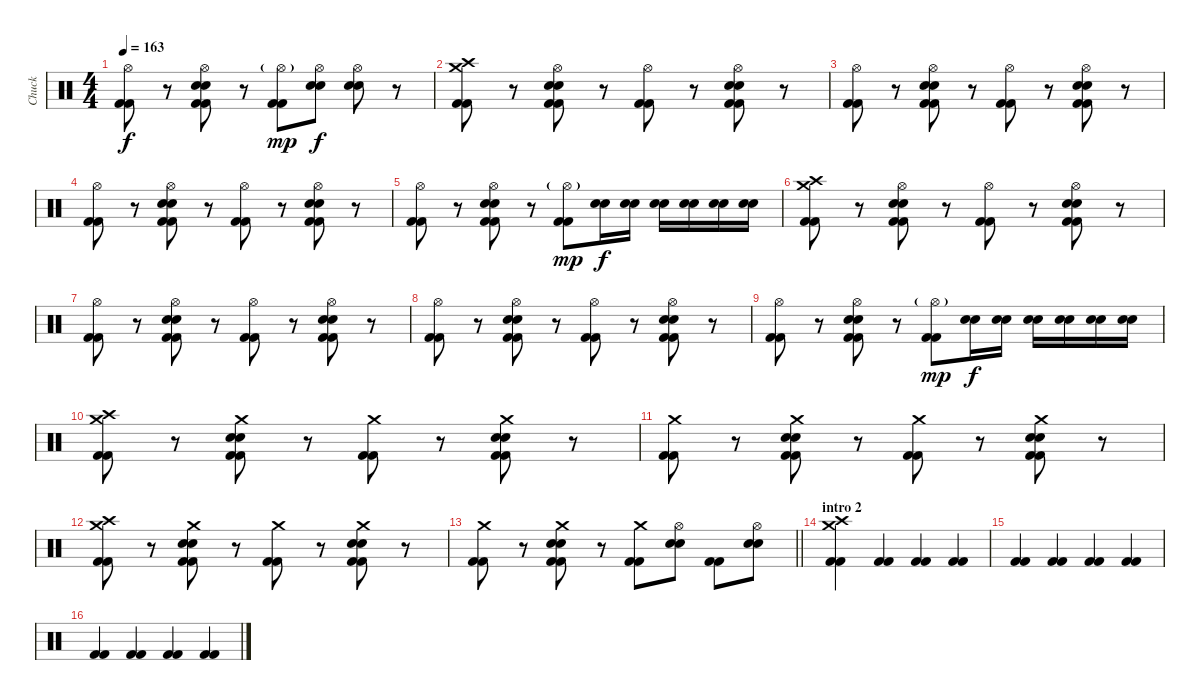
\track ("Chuck" "Chuck") {instrument percussion}
\staff {score}
\articulation defaults
\ts (4 4)
\tempo 163
\clef neutral
\ks c
("Hi-Hat (open)" "Kick (hit) 2" "Kick (hit) 2").8{dy f} r.8 ("Hi-Hat (open)" "Snare (hit) 2" "Snare (hit) 2" "Kick (hit) 2" "Kick (hit) 2").8 r.8 ("Hi-Hat (open)"{g} "Kick (hit) 2" "Kick (hit) 2").8{dy mp} ("Hi-Hat (open)" "Snare (hit) 2" "Snare (hit) 2").8{dy f} ("Hi-Hat (open)" "Snare (hit) 2" "Snare (hit) 2").8 r.8 |
("Crash medium (hit)" "Crash high (hit)" "Kick (hit) 2" "Kick (hit) 2").8 r.8 ("Hi-Hat (open)" "Snare (hit) 2" "Snare (hit) 2" "Kick (hit) 2" "Kick (hit) 2").8 r.8 ("Hi-Hat (open)" "Kick (hit) 2" "Kick (hit) 2").8 r.8 ("Hi-Hat (open)" "Snare (hit) 2" "Snare (hit) 2" "Kick (hit) 2" "Kick (hit) 2").8 r.8 |
("Hi-Hat (open)" "Kick (hit) 2" "Kick (hit) 2").8 r.8 ("Hi-Hat (open)" "Snare (hit) 2" "Snare (hit) 2" "Kick (hit) 2" "Kick (hit) 2").8 r.8 ("Hi-Hat (open)" "Kick (hit) 2" "Kick (hit) 2").8 r.8 ("Hi-Hat (open)" "Snare (hit) 2" "Snare (hit) 2" "Kick (hit) 2" "Kick (hit) 2").8 r.8 |
("Hi-Hat (open)" "Kick (hit) 2" "Kick (hit) 2").8 r.8 ("Hi-Hat (open)" "Snare (hit) 2" "Snare (hit) 2" "Kick (hit) 2" "Kick (hit) 2").8 r.8 ("Hi-Hat (open)" "Kick (hit) 2" "Kick (hit) 2").8 r.8 ("Hi-Hat (open)" "Snare (hit) 2" "Snare (hit) 2" "Kick (hit) 2" "Kick (hit) 2").8 r.8 |
("Hi-Hat (open)" "Kick (hit) 2" "Kick (hit) 2").8 r.8 ("Hi-Hat (open)" "Snare (hit) 2" "Snare (hit) 2" "Kick (hit) 2" "Kick (hit) 2").8 r.8 ("Hi-Hat (open)"{g} "Kick (hit) 2" "Kick (hit) 2").8{dy mp} ("Snare (hit) 2" "Snare (hit) 2").16{dy f} ("Snare (hit) 2" "Snare (hit) 2").16 ("Snare (hit) 2" "Snare (hit) 2").16 ("Snare (hit) 2" "Snare (hit) 2").16 ("Snare (hit) 2" "Snare (hit) 2").16 ("Snare (hit) 2" "Snare (hit) 2").16 |
("Crash medium (hit)" "Crash high (hit)" "Kick (hit) 2" "Kick (hit) 2").8 r.8 ("Hi-Hat (open)" "Snare (hit) 2" "Snare (hit) 2" "Kick (hit) 2" "Kick (hit) 2").8 r.8 ("Hi-Hat (open)" "Kick (hit) 2" "Kick (hit) 2").8 r.8 ("Hi-Hat (open)" "Snare (hit) 2" "Snare (hit) 2" "Kick (hit) 2" "Kick (hit) 2").8 r.8 |
("Hi-Hat (open)" "Kick (hit) 2" "Kick (hit) 2").8 r.8 ("Hi-Hat (open)" "Snare (hit) 2" "Snare (hit) 2" "Kick (hit) 2" "Kick (hit) 2").8 r.8 ("Hi-Hat (open)" "Kick (hit) 2" "Kick (hit) 2").8 r.8 ("Hi-Hat (open)" "Snare (hit) 2" "Snare (hit) 2" "Kick (hit) 2" "Kick (hit) 2").8 r.8 |
("Hi-Hat (open)" "Kick (hit) 2" "Kick (hit) 2").8 r.8 ("Hi-Hat (open)" "Snare (hit) 2" "Snare (hit) 2" "Kick (hit) 2" "Kick (hit) 2").8 r.8 ("Hi-Hat (open)" "Kick (hit) 2" "Kick (hit) 2").8 r.8 ("Hi-Hat (open)" "Snare (hit) 2" "Snare (hit) 2" "Kick (hit) 2" "Kick (hit) 2").8 r.8 |
("Hi-Hat (open)" "Kick (hit) 2" "Kick (hit) 2").8 r.8 ("Hi-Hat (open)" "Snare (hit) 2" "Snare (hit) 2" "Kick (hit) 2" "Kick (hit) 2").8 r.8 ("Hi-Hat (open)"{g} "Kick (hit) 2" "Kick (hit) 2").8{dy mp} ("Snare (hit) 2" "Snare (hit) 2").16{dy f} ("Snare (hit) 2" "Snare (hit) 2").16 ("Snare (hit) 2" "Snare (hit) 2").16 ("Snare (hit) 2" "Snare (hit) 2").16 ("Snare (hit) 2" "Snare (hit) 2").16 ("Snare (hit) 2" "Snare (hit) 2").16 |
("Crash medium (hit)" "Crash high (hit)" "Kick (hit) 2" "Kick (hit) 2").8 r.8 ("Crash medium (hit)" "Snare (hit) 2" "Snare (hit) 2" "Kick (hit) 2" "Kick (hit) 2").8 r.8 ("Crash medium (hit)" "Kick (hit) 2" "Kick (hit) 2").8 r.8 ("Crash medium (hit)" "Snare (hit) 2" "Snare (hit) 2" "Kick (hit) 2" "Kick (hit) 2").8 r.8 |
("Crash medium (hit)" "Kick (hit) 2" "Kick (hit) 2").8 r.8 ("Crash medium (hit)" "Snare (hit) 2" "Snare (hit) 2" "Kick (hit) 2" "Kick (hit) 2").8 r.8 ("Crash medium (hit)" "Kick (hit) 2" "Kick (hit) 2").8 r.8 ("Crash medium (hit)" "Snare (hit) 2" "Snare (hit) 2" "Kick (hit) 2" "Kick (hit) 2").8 r.8 |
("Crash medium (hit)" "Crash high (hit)" "Kick (hit) 2" "Kick (hit) 2").8 r.8 ("Crash medium (hit)" "Snare (hit) 2" "Snare (hit) 2" "Kick (hit) 2" "Kick (hit) 2").8 r.8 ("Crash medium (hit)" "Kick (hit) 2" "Kick (hit) 2").8 r.8 ("Crash medium (hit)" "Snare (hit) 2" "Snare (hit) 2" "Kick (hit) 2" "Kick (hit) 2").8 r.8 |
\barLineRight lightlight
("Crash medium (hit)" "Kick (hit) 2" "Kick (hit) 2").8 r.8 ("Crash medium (hit)" "Snare (hit) 2" "Snare (hit) 2" "Kick (hit) 2" "Kick (hit) 2").8 r.8 ("Crash medium (hit)" "Kick (hit) 2" "Kick (hit) 2").8 ("Hi-Hat (open)" "Snare (hit) 2" "Snare (hit) 2").8 ("Kick (hit) 2" "Kick (hit) 2").8 ("Hi-Hat (open)" "Snare (hit) 2" "Snare (hit) 2").8 |
\section ("" "intro 2")
("Kick (hit) 2" "Kick (hit) 2" "Crash high (hit)" "Crash medium (hit)").4 ("Kick (hit) 2" "Kick (hit) 2").4 ("Kick (hit) 2" "Kick (hit) 2").4 ("Kick (hit) 2" "Kick (hit) 2").4 |
("Kick (hit) 2" "Kick (hit) 2").4 ("Kick (hit) 2" "Kick (hit) 2").4 ("Kick (hit) 2" "Kick (hit) 2").4 ("Kick (hit) 2" "Kick (hit) 2").4 |
("Kick (hit) 2" "Kick (hit) 2").4 ("Kick (hit) 2" "Kick (hit) 2").4 ("Kick (hit) 2" "Kick (hit) 2").4 ("Kick (hit) 2" "Kick (hit) 2").4
